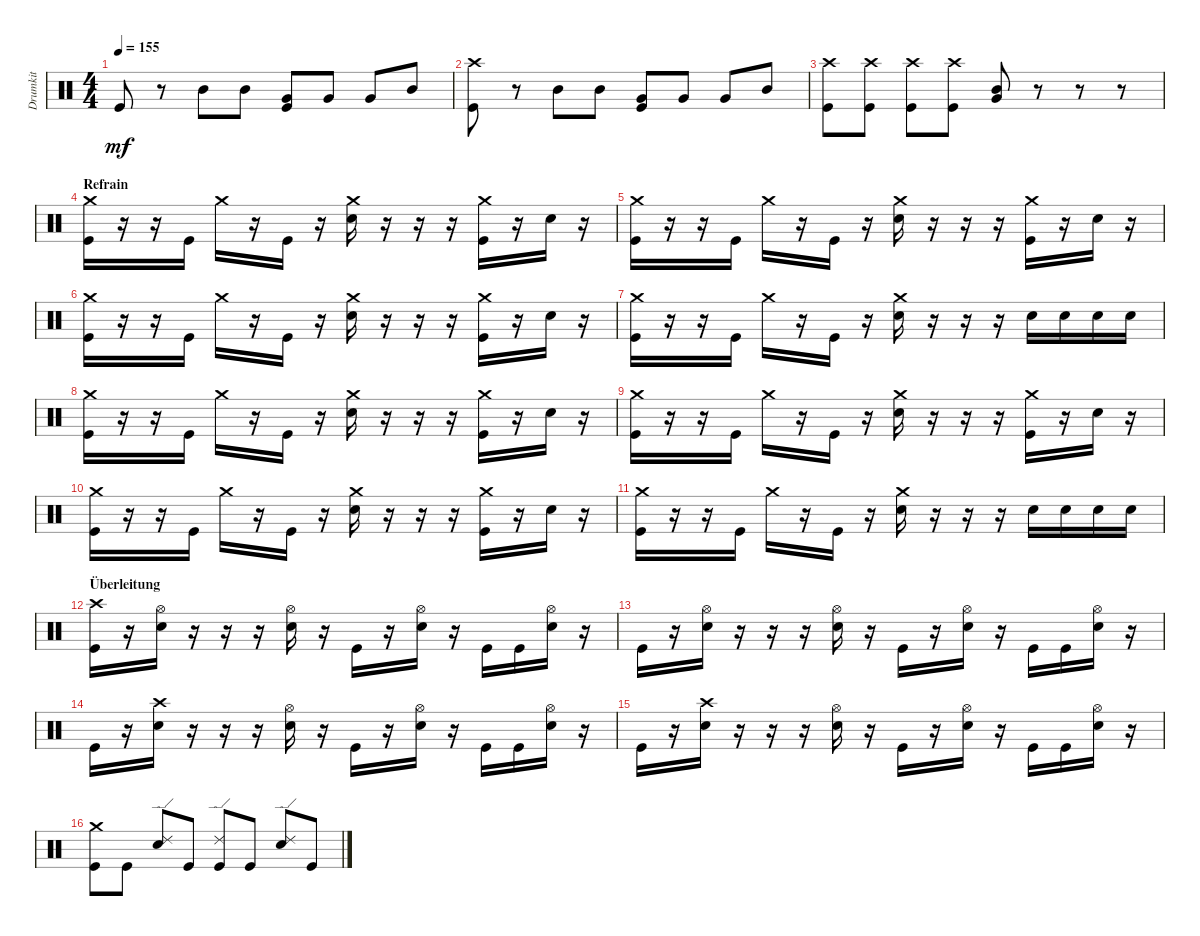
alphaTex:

\track ("Drumkit" "Drumkit") {instrument percussion}
\staff {score}
\articulation defaults
\ts (4 4)
\tempo 155
\clef neutral
\ks c "Kick (hit)".8{dy mf}
r.8 "Mid Tom (hit)".8 "Mid Tom (hit)".8 ("Kick (hit)" "Very Low Tom (hit)").8 "Very Low Tom (hit)".8 "Very Low Tom (hit)".8 "Mid Tom (hit)".8 |
("Kick (hit)" "Crash high (hit)").8 r.8 "Mid Tom (hit)".8 "Mid Tom (hit)".8 ("Kick (hit)" "Very Low Tom (hit)").8 "Very Low Tom (hit)".8 "Very Low Tom (hit)".8 "Mid Tom (hit)".8 |
("Kick (hit)" "Crash high (hit)").8 ("Kick (hit)" "Crash high (hit)").8 ("Kick (hit)" "Crash high (hit)").8 ("Kick (hit)" "Crash high (hit)").8 ("Very Low Tom (hit)" "Mid Tom (hit)").8 r.8 r.8 r.8 |
\section ("" "Refrain")
("Kick (hit)" "Crash medium (hit)").16 r.16 r.16 "Kick (hit)".16 "Crash medium (hit)".16 r.16 "Kick (hit)".16 r.16 ("Snare (hit) 2" "Crash medium (hit)").16 r.16 r.16 r.16 ("Kick (hit)" "Crash medium (hit)").16 r.16 "Snare (hit) 2".16 r.16 |
("Kick (hit)" "Crash medium (hit)").16 r.16 r.16 "Kick (hit)".16 "Crash medium (hit)".16 r.16 "Kick (hit)".16 r.16 ("Snare (hit) 2" "Crash medium (hit)").16 r.16 r.16 r.16 ("Kick (hit)" "Crash medium (hit)").16 r.16 "Snare (hit) 2".16 r.16 |
("Kick (hit)" "Crash medium (hit)").16 r.16 r.16 "Kick (hit)".16 "Crash medium (hit)".16 r.16 "Kick (hit)".16 r.16 ("Snare (hit) 2" "Crash medium (hit)").16 r.16 r.16 r.16 ("Kick (hit)" "Crash medium (hit)").16 r.16 "Snare (hit) 2".16 r.16 |
("Kick (hit)" "Crash medium (hit)").16 r.16 r.16 "Kick (hit)".16 "Crash medium (hit)".16 r.16 "Kick (hit)".16 r.16 ("Snare (hit) 2" "Crash medium (hit)").16 r.16 r.16 r.16 "Snare (hit) 2".16 "Snare (hit) 2".16 "Snare (hit) 2".16 "Snare (hit) 2".16 |
("Kick (hit)" "Crash medium (hit)").16 r.16 r.16 "Kick (hit)".16 "Crash medium (hit)".16 r.16 "Kick (hit)".16 r.16 ("Snare (hit) 2" "Crash medium (hit)").16 r.16 r.16 r.16 ("Kick (hit)" "Crash medium (hit)").16 r.16 "Snare (hit) 2".16 r.16 |
("Kick (hit)" "Crash medium (hit)").16 r.16 r.16 "Kick (hit)".16 "Crash medium (hit)".16 r.16 "Kick (hit)".16 r.16 ("Snare (hit) 2" "Crash medium (hit)").16 r.16 r.16 r.16 ("Kick (hit)" "Crash medium (hit)").16 r.16 "Snare (hit) 2".16 r.16 |
("Kick (hit)" "Crash medium (hit)").16 r.16 r.16 "Kick (hit)".16 "Crash medium (hit)".16 r.16 "Kick (hit)".16 r.16 ("Snare (hit) 2" "Crash medium (hit)").16 r.16 r.16 r.16 ("Kick (hit)" "Crash medium (hit)").16 r.16 "Snare (hit) 2".16 r.16 |
("Kick (hit)" "Crash medium (hit)").16 r.16 r.16 "Kick (hit)".16 "Crash medium (hit)".16 r.16 "Kick (hit)".16 r.16 ("Snare (hit) 2" "Crash medium (hit)").16 r.16 r.16 r.16 "Snare (hit) 2".16 "Snare (hit) 2".16 "Snare (hit) 2".16 "Snare (hit) 2".16 |
\section ("" "Überleitung")
("Kick (hit)" "Crash high (hit)").16 r.16 ("Snare (hit) 2" "Hi-Hat (open)").16 r.16 r.16 r.16 ("Snare (hit) 2" "Hi-Hat (open)").16 r.16 "Kick (hit)".16 r.16 ("Snare (hit) 2" "Hi-Hat (open)").16 r.16 "Kick (hit)".16 "Kick (hit)".16 ("Snare (hit) 2" "Hi-Hat (open)").16 r.16 |
"Kick (hit)".16 r.16 ("Snare (hit) 2" "Hi-Hat (open)").16 r.16 r.16 r.16 ("Snare (hit) 2" "Hi-Hat (open)").16 r.16 "Kick (hit)".16 r.16 ("Snare (hit) 2" "Hi-Hat (open)").16 r.16 "Kick (hit)".16 "Kick (hit)".16 ("Snare (hit) 2" "Hi-Hat (open)").16 r.16 |
"Kick (hit)".16 r.16 ("Snare (hit) 2" "Crash high (hit)").16 r.16 r.16 r.16 ("Snare (hit) 2" "Hi-Hat (open)").16 r.16 "Kick (hit)".16 r.16 ("Snare (hit) 2" "Hi-Hat (open)").16 r.16 "Kick (hit)".16 "Kick (hit)".16 ("Snare (hit) 2" "Hi-Hat (open)").16 r.16 |
"Kick (hit)".16 r.16 ("Snare (hit) 2" "Crash high (hit)").16 r.16 r.16 r.16 ("Snare (hit) 2" "Hi-Hat (open)").16 r.16 "Kick (hit)".16 r.16 ("Snare (hit) 2" "Hi-Hat (open)").16 r.16 "Kick (hit)".16 "Kick (hit)".16 ("Snare (hit) 2" "Hi-Hat (open)").16 r.16 |
("Kick (hit)" "Crash medium (hit)").8 "Kick (hit)".8 ("Snare (hit) 2" "Ride (edge) 2").8 "Kick (hit)".8 ("Kick (hit)" "Ride (edge) 2").8 "Kick (hit)".8 ("Snare (hit) 2" "Ride (edge) 2").8 "Kick (hit)".8
